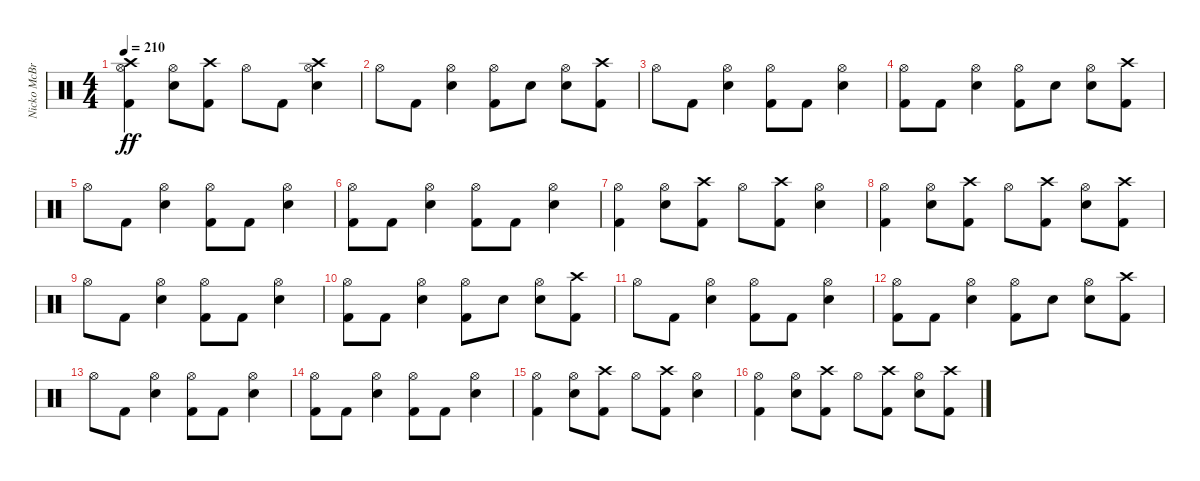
\track ("Nicko McBrain" "Nicko McBr") {instrument percussion}
\staff {score}
\articulation defaults
\ts (4 4)
\tempo 210
\clef neutral
\ks c
("Kick (hit) 2" "Hi-Hat (open)" "Crash high (hit)").4{dy ff} ("Snare (hit) 2" "Hi-Hat (open)").8 ("Kick (hit) 2" "Crash high (hit)").8 "Hi-Hat (open)".8 "Kick (hit) 2".8 ("Snare (hit) 2" "Hi-Hat (open)" "Crash high (hit)").4 |
"Hi-Hat (open)".8 "Kick (hit) 2".8 ("Snare (hit) 2" "Hi-Hat (open)").4 ("Kick (hit) 2" "Hi-Hat (open)").8 "Snare (hit) 2".8 ("Snare (hit) 2" "Hi-Hat (open)").8 ("Kick (hit) 2" "Crash high (hit)").8 |
"Hi-Hat (open)".8 "Kick (hit) 2".8 ("Snare (hit) 2" "Hi-Hat (open)").4 ("Kick (hit) 2" "Hi-Hat (open)").8 "Kick (hit) 2".8 ("Snare (hit) 2" "Hi-Hat (open)").4 |
("Kick (hit) 2" "Hi-Hat (open)").8 "Kick (hit) 2".8 ("Snare (hit) 2" "Hi-Hat (open)").4 ("Kick (hit) 2" "Hi-Hat (open)").8 "Snare (hit) 2".8 ("Snare (hit) 2" "Hi-Hat (open)").8 ("Kick (hit) 2" "Crash high (hit)").8 |
"Hi-Hat (open)".8 "Kick (hit) 2".8 ("Snare (hit) 2" "Hi-Hat (open)").4 ("Kick (hit) 2" "Hi-Hat (open)").8 "Kick (hit) 2".8 ("Snare (hit) 2" "Hi-Hat (open)").4 |
("Kick (hit) 2" "Hi-Hat (open)").8 "Kick (hit) 2".8 ("Snare (hit) 2" "Hi-Hat (open)").4 ("Kick (hit) 2" "Hi-Hat (open)").8 "Kick (hit) 2".8 ("Snare (hit) 2" "Hi-Hat (open)").4 |
("Kick (hit) 2" "Hi-Hat (open)").4 ("Snare (hit) 2" "Hi-Hat (open)").8 ("Kick (hit) 2" "Crash high (hit)").8 "Hi-Hat (open)".8 ("Kick (hit) 2" "Crash high (hit)").8 ("Snare (hit) 2" "Hi-Hat (open)").4 |
("Kick (hit) 2" "Hi-Hat (open)").4 ("Snare (hit) 2" "Hi-Hat (open)").8 ("Kick (hit) 2" "Crash high (hit)").8 "Hi-Hat (open)".8 ("Kick (hit) 2" "Crash high (hit)").8 ("Snare (hit) 2" "Hi-Hat (open)").8 ("Kick (hit) 2" "Crash high (hit)").8 |
"Hi-Hat (open)".8 "Kick (hit) 2".8 ("Snare (hit) 2" "Hi-Hat (open)").4 ("Kick (hit) 2" "Hi-Hat (open)").8 "Kick (hit) 2".8 ("Snare (hit) 2" "Hi-Hat (open)").4 |
("Kick (hit) 2" "Hi-Hat (open)").8 "Kick (hit) 2".8 ("Snare (hit) 2" "Hi-Hat (open)").4 ("Kick (hit) 2" "Hi-Hat (open)").8 "Snare (hit) 2".8 ("Snare (hit) 2" "Hi-Hat (open)").8 ("Kick (hit) 2" "Crash high (hit)").8 |
"Hi-Hat (open)".8 "Kick (hit) 2".8 ("Snare (hit) 2" "Hi-Hat (open)").4 ("Kick (hit) 2" "Hi-Hat (open)").8 "Kick (hit) 2".8 ("Snare (hit) 2" "Hi-Hat (open)").4 |
("Kick (hit) 2" "Hi-Hat (open)").8 "Kick (hit) 2".8 ("Snare (hit) 2" "Hi-Hat (open)").4 ("Kick (hit) 2" "Hi-Hat (open)").8 "Snare (hit) 2".8 ("Snare (hit) 2" "Hi-Hat (open)").8 ("Kick (hit) 2" "Crash high (hit)").8 |
"Hi-Hat (open)".8 "Kick (hit) 2".8 ("Snare (hit) 2" "Hi-Hat (open)").4 ("Kick (hit) 2" "Hi-Hat (open)").8 "Kick (hit) 2".8 ("Snare (hit) 2" "Hi-Hat (open)").4 |
("Kick (hit) 2" "Hi-Hat (open)").8 "Kick (hit) 2".8 ("Snare (hit) 2" "Hi-Hat (open)").4 ("Kick (hit) 2" "Hi-Hat (open)").8 "Kick (hit) 2".8 ("Snare (hit) 2" "Hi-Hat (open)").4 |
("Kick (hit) 2" "Hi-Hat (open)").4 ("Snare (hit) 2" "Hi-Hat (open)").8 ("Kick (hit) 2" "Crash high (hit)").8 "Hi-Hat (open)".8 ("Kick (hit) 2" "Crash high (hit)").8 ("Snare (hit) 2" "Hi-Hat (open)").4 |
("Kick (hit) 2" "Hi-Hat (open)").4 ("Snare (hit) 2" "Hi-Hat (open)").8 ("Kick (hit) 2" "Crash high (hit)").8 "Hi-Hat (open)".8 ("Kick (hit) 2" "Crash high (hit)").8 ("Snare (hit) 2" "Hi-Hat (open)").8 ("Kick (hit) 2" "Crash high (hit)").8
